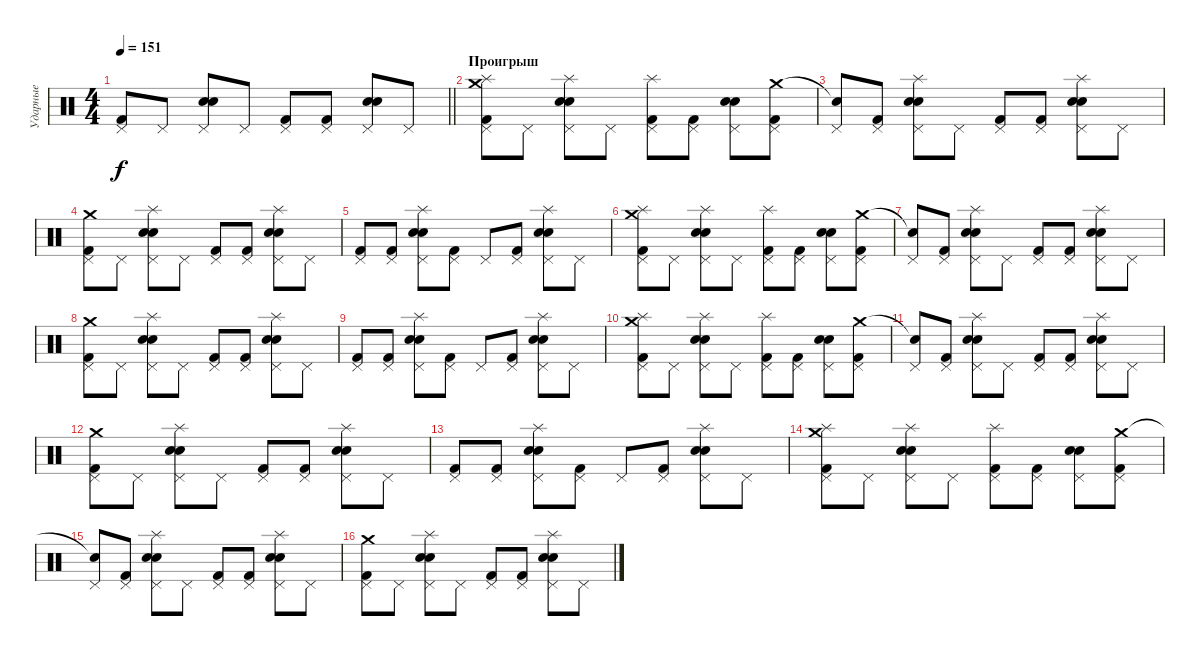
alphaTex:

\track ("Ударные" "Ударные") {instrument percussion}
\staff {score}
\articulation defaults
\ts (4 4)
\tempo 151
\clef neutral
\barLineRight lightlight
\ks c
("Pedal Hi-Hat (hit)" "Kick (hit) 2").8{dy f} "Pedal Hi-Hat (hit)".8 ("Pedal Hi-Hat (hit)" "Electric Snare (hit)" "Snare (hit) 2").8 "Pedal Hi-Hat (hit)".8 ("Pedal Hi-Hat (hit)" "Kick (hit) 2").8 ("Pedal Hi-Hat (hit)" "Kick (hit) 2").8 ("Pedal Hi-Hat (hit)" "Electric Snare (hit)" "Snare (hit) 2").8 "Pedal Hi-Hat (hit)".8 |
\section ("" "Проигрыш")
("Pedal Hi-Hat (hit)" "Splash (hit)" "Crash medium (hit)" "Kick (hit) 2").8 "Pedal Hi-Hat (hit)".8 ("Pedal Hi-Hat (hit)" "Splash (hit)" "Electric Snare (hit)" "Snare (hit) 2").8 "Pedal Hi-Hat (hit)".8 ("Pedal Hi-Hat (hit)" "Splash (hit)" "Kick (hit) 2").8 ("Pedal Hi-Hat (hit)" "Kick (hit) 2").8 ("Pedal Hi-Hat (hit)" "Electric Snare (hit)" "Snare (hit) 2").8 ("Pedal Hi-Hat (hit)" "Crash medium (hit)" "Kick (hit) 2").8 |
("Pedal Hi-Hat (hit)" "Snare (hit)"{t}).8 ("Pedal Hi-Hat (hit)" "Kick (hit) 2").8 ("Pedal Hi-Hat (hit)" "Splash (hit)" "Electric Snare (hit)" "Snare (hit) 2").8 "Pedal Hi-Hat (hit)".8 ("Pedal Hi-Hat (hit)" "Kick (hit) 2").8 ("Pedal Hi-Hat (hit)" "Kick (hit) 2").8 ("Pedal Hi-Hat (hit)" "Splash (hit)" "Electric Snare (hit)" "Snare (hit) 2").8 "Pedal Hi-Hat (hit)".8 |
("Pedal Hi-Hat (hit)" "Crash medium (hit)" "Kick (hit) 2").8 "Pedal Hi-Hat (hit)".8 ("Pedal Hi-Hat (hit)" "Splash (hit)" "Electric Snare (hit)" "Snare (hit) 2").8 "Pedal Hi-Hat (hit)".8 ("Pedal Hi-Hat (hit)" "Kick (hit) 2").8 ("Pedal Hi-Hat (hit)" "Kick (hit) 2").8 ("Pedal Hi-Hat (hit)" "Splash (hit)" "Electric Snare (hit)" "Snare (hit) 2").8 "Pedal Hi-Hat (hit)".8 |
("Pedal Hi-Hat (hit)" "Kick (hit) 2").8 ("Pedal Hi-Hat (hit)" "Kick (hit) 2").8 ("Pedal Hi-Hat (hit)" "Splash (hit)" "Electric Snare (hit)" "Snare (hit) 2").8 ("Pedal Hi-Hat (hit)" "Kick (hit) 2").8 "Pedal Hi-Hat (hit)".8 ("Pedal Hi-Hat (hit)" "Kick (hit) 2").8 ("Pedal Hi-Hat (hit)" "Splash (hit)" "Electric Snare (hit)" "Snare (hit) 2").8 "Pedal Hi-Hat (hit)".8 |
("Pedal Hi-Hat (hit)" "Splash (hit)" "Crash medium (hit)" "Kick (hit) 2").8 "Pedal Hi-Hat (hit)".8 ("Pedal Hi-Hat (hit)" "Splash (hit)" "Electric Snare (hit)" "Snare (hit) 2").8 "Pedal Hi-Hat (hit)".8 ("Pedal Hi-Hat (hit)" "Splash (hit)" "Kick (hit) 2").8 ("Pedal Hi-Hat (hit)" "Kick (hit) 2").8 ("Pedal Hi-Hat (hit)" "Electric Snare (hit)" "Snare (hit) 2").8 ("Pedal Hi-Hat (hit)" "Crash medium (hit)" "Kick (hit) 2").8 |
("Pedal Hi-Hat (hit)" "Snare (hit)"{t}).8 ("Pedal Hi-Hat (hit)" "Kick (hit) 2").8 ("Pedal Hi-Hat (hit)" "Splash (hit)" "Electric Snare (hit)" "Snare (hit) 2").8 "Pedal Hi-Hat (hit)".8 ("Pedal Hi-Hat (hit)" "Kick (hit) 2").8 ("Pedal Hi-Hat (hit)" "Kick (hit) 2").8 ("Pedal Hi-Hat (hit)" "Splash (hit)" "Electric Snare (hit)" "Snare (hit) 2").8 "Pedal Hi-Hat (hit)".8 |
("Pedal Hi-Hat (hit)" "Crash medium (hit)" "Kick (hit) 2").8 "Pedal Hi-Hat (hit)".8 ("Pedal Hi-Hat (hit)" "Splash (hit)" "Electric Snare (hit)" "Snare (hit) 2").8 "Pedal Hi-Hat (hit)".8 ("Pedal Hi-Hat (hit)" "Kick (hit) 2").8 ("Pedal Hi-Hat (hit)" "Kick (hit) 2").8 ("Pedal Hi-Hat (hit)" "Splash (hit)" "Electric Snare (hit)" "Snare (hit) 2").8 "Pedal Hi-Hat (hit)".8 |
("Pedal Hi-Hat (hit)" "Kick (hit) 2").8 ("Pedal Hi-Hat (hit)" "Kick (hit) 2").8 ("Pedal Hi-Hat (hit)" "Splash (hit)" "Electric Snare (hit)" "Snare (hit) 2").8 ("Pedal Hi-Hat (hit)" "Kick (hit) 2").8 "Pedal Hi-Hat (hit)".8 ("Pedal Hi-Hat (hit)" "Kick (hit) 2").8 ("Pedal Hi-Hat (hit)" "Splash (hit)" "Electric Snare (hit)" "Snare (hit) 2").8 "Pedal Hi-Hat (hit)".8 |
("Pedal Hi-Hat (hit)" "Splash (hit)" "Crash medium (hit)" "Kick (hit) 2").8 "Pedal Hi-Hat (hit)".8 ("Pedal Hi-Hat (hit)" "Splash (hit)" "Electric Snare (hit)" "Snare (hit) 2").8 "Pedal Hi-Hat (hit)".8 ("Pedal Hi-Hat (hit)" "Splash (hit)" "Kick (hit) 2").8 ("Pedal Hi-Hat (hit)" "Kick (hit) 2").8 ("Pedal Hi-Hat (hit)" "Electric Snare (hit)" "Snare (hit) 2").8 ("Pedal Hi-Hat (hit)" "Crash medium (hit)" "Kick (hit) 2").8 |
("Pedal Hi-Hat (hit)" "Snare (hit)"{t}).8 ("Pedal Hi-Hat (hit)" "Kick (hit) 2").8 ("Pedal Hi-Hat (hit)" "Splash (hit)" "Electric Snare (hit)" "Snare (hit) 2").8 "Pedal Hi-Hat (hit)".8 ("Pedal Hi-Hat (hit)" "Kick (hit) 2").8 ("Pedal Hi-Hat (hit)" "Kick (hit) 2").8 ("Pedal Hi-Hat (hit)" "Splash (hit)" "Electric Snare (hit)" "Snare (hit) 2").8 "Pedal Hi-Hat (hit)".8 |
("Pedal Hi-Hat (hit)" "Crash medium (hit)" "Kick (hit) 2").8 "Pedal Hi-Hat (hit)".8 ("Pedal Hi-Hat (hit)" "Splash (hit)" "Electric Snare (hit)" "Snare (hit) 2").8 "Pedal Hi-Hat (hit)".8 ("Pedal Hi-Hat (hit)" "Kick (hit) 2").8 ("Pedal Hi-Hat (hit)" "Kick (hit) 2").8 ("Pedal Hi-Hat (hit)" "Splash (hit)" "Electric Snare (hit)" "Snare (hit) 2").8 "Pedal Hi-Hat (hit)".8 |
("Pedal Hi-Hat (hit)" "Kick (hit) 2").8 ("Pedal Hi-Hat (hit)" "Kick (hit) 2").8 ("Pedal Hi-Hat (hit)" "Splash (hit)" "Electric Snare (hit)" "Snare (hit) 2").8 ("Pedal Hi-Hat (hit)" "Kick (hit) 2").8 "Pedal Hi-Hat (hit)".8 ("Pedal Hi-Hat (hit)" "Kick (hit) 2").8 ("Pedal Hi-Hat (hit)" "Splash (hit)" "Electric Snare (hit)" "Snare (hit) 2").8 "Pedal Hi-Hat (hit)".8 |
("Pedal Hi-Hat (hit)" "Splash (hit)" "Crash medium (hit)" "Kick (hit) 2").8 "Pedal Hi-Hat (hit)".8 ("Pedal Hi-Hat (hit)" "Splash (hit)" "Electric Snare (hit)" "Snare (hit) 2").8 "Pedal Hi-Hat (hit)".8 ("Pedal Hi-Hat (hit)" "Splash (hit)" "Kick (hit) 2").8 ("Pedal Hi-Hat (hit)" "Kick (hit) 2").8 ("Pedal Hi-Hat (hit)" "Electric Snare (hit)" "Snare (hit) 2").8 ("Pedal Hi-Hat (hit)" "Crash medium (hit)" "Kick (hit) 2").8 |
("Pedal Hi-Hat (hit)" "Snare (hit)"{t}).8 ("Pedal Hi-Hat (hit)" "Kick (hit) 2").8 ("Pedal Hi-Hat (hit)" "Splash (hit)" "Electric Snare (hit)" "Snare (hit) 2").8 "Pedal Hi-Hat (hit)".8 ("Pedal Hi-Hat (hit)" "Kick (hit) 2").8 ("Pedal Hi-Hat (hit)" "Kick (hit) 2").8 ("Pedal Hi-Hat (hit)" "Splash (hit)" "Electric Snare (hit)" "Snare (hit) 2").8 "Pedal Hi-Hat (hit)".8 |
("Pedal Hi-Hat (hit)" "Crash medium (hit)" "Kick (hit) 2").8 "Pedal Hi-Hat (hit)".8 ("Pedal Hi-Hat (hit)" "Splash (hit)" "Electric Snare (hit)" "Snare (hit) 2").8 "Pedal Hi-Hat (hit)".8 ("Pedal Hi-Hat (hit)" "Kick (hit) 2").8 ("Pedal Hi-Hat (hit)" "Kick (hit) 2").8 ("Pedal Hi-Hat (hit)" "Splash (hit)" "Electric Snare (hit)" "Snare (hit) 2").8 "Pedal Hi-Hat (hit)".8
